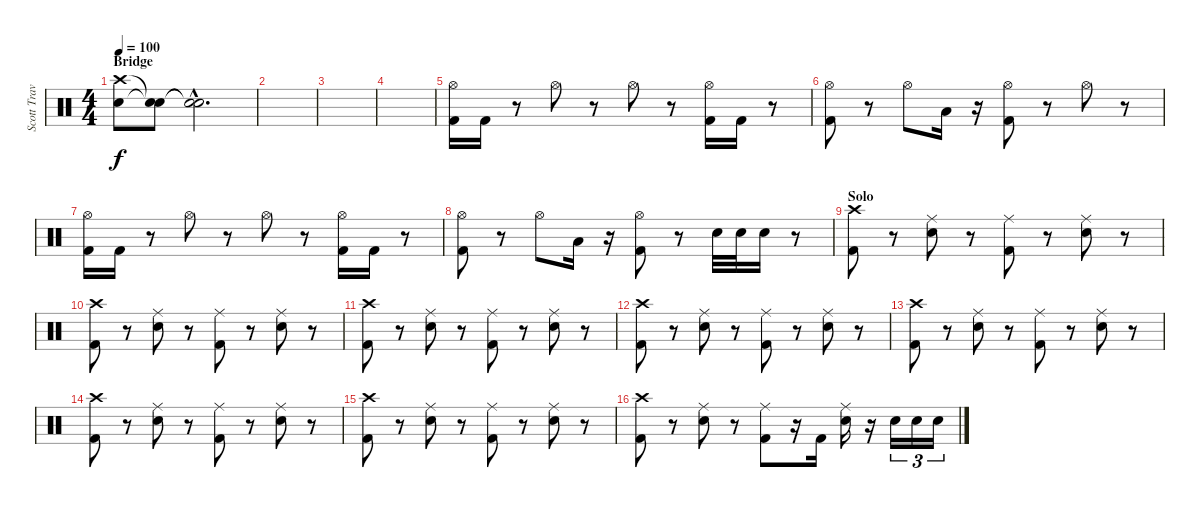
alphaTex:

\track ("Scott Travis" "Scott Trav") {instrument percussion}
\staff {score}
\articulation defaults
\ts (4 4)
\section ("" "Bridge")
\tempo 100
\clef neutral
\ks c
("Crash high (hit)" "Electric Snare (hit)").8{dy f} ("Snare (hit)"{t} "Snare (hit)"{t}).8 ("Snare (hit)"{hac t} "Snare (hit)"{hac t}).2{d} |
|
|
|
("Hi-Hat (open)" "Kick (hit) 2").16 "Kick (hit) 2".16 r.8 "Hi-Hat (open)".8 r.8 "Hi-Hat (open)".8 r.8 ("Hi-Hat (open)" "Kick (hit) 2").16 "Kick (hit) 2".16 r.8 |
("Hi-Hat (open)" "Kick (hit) 2").8 r.8 "Hi-Hat (open)".8 "Low Floor Tom (hit)".16 r.16 ("Hi-Hat (open)" "Kick (hit) 2").8 r.8 "Hi-Hat (open)".8 r.8 |
("Hi-Hat (open)" "Kick (hit) 2").16 "Kick (hit) 2".16 r.8 "Hi-Hat (open)".8 r.8 "Hi-Hat (open)".8 r.8 ("Hi-Hat (open)" "Kick (hit) 2").16 "Kick (hit) 2".16 r.8 |
("Hi-Hat (open)" "Kick (hit) 2").8 r.8 "Hi-Hat (open)".8 "Low Floor Tom (hit)".16 r.16 ("Hi-Hat (open)" "Kick (hit) 2").8 r.8 "Snare (hit) 2".32 "Snare (hit) 2".32 "Snare (hit) 2".16 r.8 |
\section ("" "Solo")
("Crash high (hit)" "Kick (hit) 2").8 r.8 ("Ride (middle)" "Electric Snare (hit)").8 r.8 ("Ride (middle)" "Kick (hit) 2").8 r.8 ("Ride (middle)" "Electric Snare (hit)").8 r.8 |
("Crash high (hit)" "Kick (hit) 2").8 r.8 ("Ride (middle)" "Electric Snare (hit)").8 r.8 ("Ride (middle)" "Kick (hit) 2").8 r.8 ("Ride (middle)" "Electric Snare (hit)").8 r.8 |
("Crash high (hit)" "Kick (hit) 2").8 r.8 ("Ride (middle)" "Electric Snare (hit)").8 r.8 ("Ride (middle)" "Kick (hit) 2").8 r.8 ("Ride (middle)" "Electric Snare (hit)").8 r.8 |
("Crash high (hit)" "Kick (hit) 2").8 r.8 ("Ride (middle)" "Electric Snare (hit)").8 r.8 ("Ride (middle)" "Kick (hit) 2").8 r.8 ("Ride (middle)" "Electric Snare (hit)").8 r.8 |
("Crash high (hit)" "Kick (hit) 2").8 r.8 ("Ride (middle)" "Electric Snare (hit)").8 r.8 ("Ride (middle)" "Kick (hit) 2").8 r.8 ("Ride (middle)" "Electric Snare (hit)").8 r.8 |
("Crash high (hit)" "Kick (hit) 2").8 r.8 ("Ride (middle)" "Electric Snare (hit)").8 r.8 ("Ride (middle)" "Kick (hit) 2").8 r.8 ("Ride (middle)" "Electric Snare (hit)").8 r.8 |
("Crash high (hit)" "Kick (hit) 2").8 r.8 ("Ride (middle)" "Electric Snare (hit)").8 r.8 ("Ride (middle)" "Kick (hit) 2").8 r.8 ("Ride (middle)" "Electric Snare (hit)").8 r.8 |
("Crash high (hit)" "Kick (hit) 2").8 r.8 ("Ride (middle)" "Electric Snare (hit)").8 r.8 ("Ride (middle)" "Kick (hit) 2").8 r.16 "Kick (hit) 2".16 ("Ride (middle)" "Electric Snare (hit)").16 r.16 "Snare (hit) 2".16{tu (3 2)} "Snare (hit) 2".16{tu (3 2)} "Snare (hit) 2".16{tu (3 2)}
